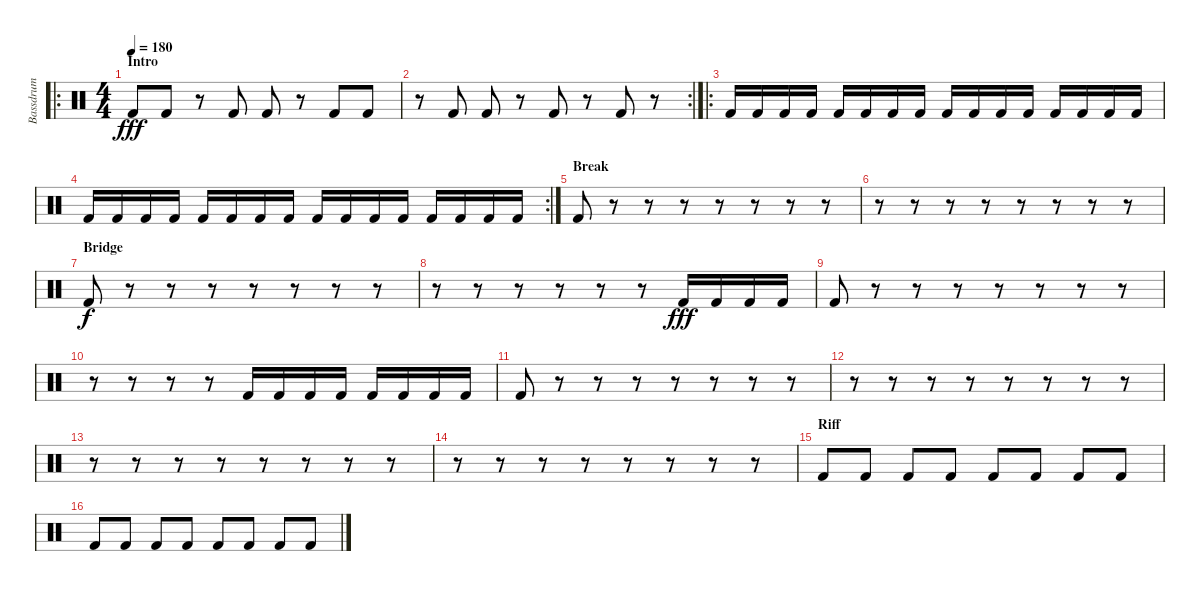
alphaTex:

\track ("Bassdrum" "Bassdrum") {instrument percussion}
\staff {score}
\articulation defaults
\ro
\ts (4 4)
\section ("" "Intro")
\tempo 180
\clef neutral
\ks c "Kick (hit) 2".8{dy fff} "Kick (hit) 2".8
r.8 "Kick (hit) 2".8 "Kick (hit) 2".8 r.8 "Kick (hit) 2".8 "Kick (hit) 2".8 |
\rc 2
r.8 "Kick (hit) 2".8 "Kick (hit) 2".8 r.8 "Kick (hit) 2".8 r.8 "Kick (hit) 2".8 r.8 |
\ro "Kick (hit) 2".16 "Kick (hit) 2".16 "Kick (hit) 2".16 "Kick (hit) 2".16 "Kick (hit) 2".16 "Kick (hit) 2".16 "Kick (hit) 2".16 "Kick (hit) 2".16 "Kick (hit) 2".16 "Kick (hit) 2".16 "Kick (hit) 2".16 "Kick (hit) 2".16 "Kick (hit) 2".16 "Kick (hit) 2".16 "Kick (hit) 2".16 "Kick (hit) 2".16
|
\rc 2 "Kick (hit) 2".16 "Kick (hit) 2".16 "Kick (hit) 2".16 "Kick (hit) 2".16 "Kick (hit) 2".16 "Kick (hit) 2".16 "Kick (hit) 2".16 "Kick (hit) 2".16 "Kick (hit) 2".16 "Kick (hit) 2".16 "Kick (hit) 2".16 "Kick (hit) 2".16 "Kick (hit) 2".16 "Kick (hit) 2".16 "Kick (hit) 2".16 "Kick (hit) 2".16
|
\section ("" "Break")
"Kick (hit) 2".8 r.8 r.8 r.8 r.8 r.8 r.8 r.8 |
r.8 r.8 r.8 r.8 r.8 r.8 r.8 r.8 |
\section ("" "Bridge")
"Kick (hit) 2".8{dy f} r.8 r.8 r.8 r.8 r.8 r.8 r.8 |
r.8 r.8 r.8 r.8 r.8 r.8 "Kick (hit) 2".16{dy fff} "Kick (hit) 2".16 "Kick (hit) 2".16 "Kick (hit) 2".16 |
"Kick (hit) 2".8 r.8 r.8 r.8 r.8 r.8 r.8 r.8 |
r.8 r.8 r.8 r.8 "Kick (hit) 2".16 "Kick (hit) 2".16 "Kick (hit) 2".16 "Kick (hit) 2".16 "Kick (hit) 2".16 "Kick (hit) 2".16 "Kick (hit) 2".16 "Kick (hit) 2".16 |
"Kick (hit) 2".8 r.8 r.8 r.8 r.8 r.8 r.8 r.8 |
r.8 r.8 r.8 r.8 r.8 r.8 r.8 r.8 |
r.8 r.8 r.8 r.8 r.8 r.8 r.8 r.8 |
r.8 r.8 r.8 r.8 r.8 r.8 r.8 r.8 |
\section ("" "Riff")
"Kick (hit) 2".8 "Kick (hit) 2".8 "Kick (hit) 2".8 "Kick (hit) 2".8 "Kick (hit) 2".8 "Kick (hit) 2".8 "Kick (hit) 2".8 "Kick (hit) 2".8 |
"Kick (hit) 2".8 "Kick (hit) 2".8 "Kick (hit) 2".8 "Kick (hit) 2".8 "Kick (hit) 2".8 "Kick (hit) 2".8 "Kick (hit) 2".8 "Kick (hit) 2".8
